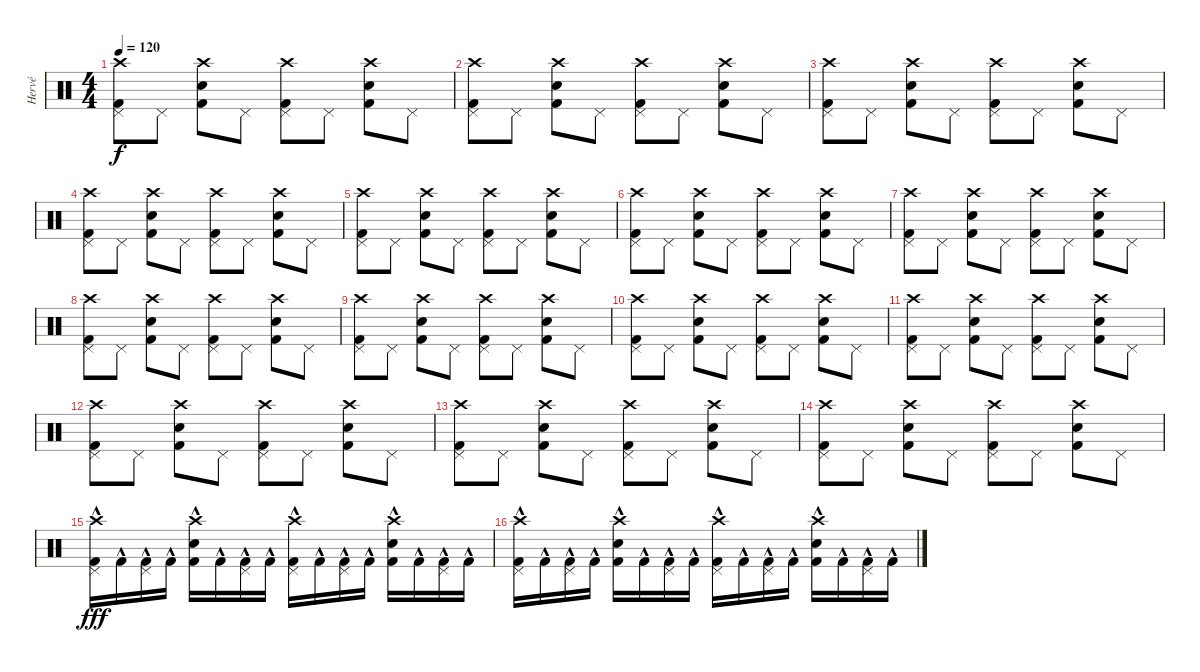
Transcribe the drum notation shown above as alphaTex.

\track ("Hervé" "Hervé") {instrument percussion}
\staff {score}
\articulation defaults
\ts (4 4)
\tempo 120
\clef neutral
\ks c
("Crash high (hit)" "Pedal Hi-Hat (hit)" "Kick (hit) 2").8{dy f} "Pedal Hi-Hat (hit)".8 ("Crash high (hit)" "Electric Snare (hit)" "Kick (hit) 2").8 "Pedal Hi-Hat (hit)".8 ("Crash high (hit)" "Pedal Hi-Hat (hit)" "Kick (hit) 2").8 "Pedal Hi-Hat (hit)".8 ("Crash high (hit)" "Electric Snare (hit)" "Kick (hit) 2").8 "Pedal Hi-Hat (hit)".8 |
("Crash high (hit)" "Pedal Hi-Hat (hit)" "Kick (hit) 2").8 "Pedal Hi-Hat (hit)".8 ("Crash high (hit)" "Electric Snare (hit)" "Kick (hit) 2").8 "Pedal Hi-Hat (hit)".8 ("Crash high (hit)" "Pedal Hi-Hat (hit)" "Kick (hit) 2").8 "Pedal Hi-Hat (hit)".8 ("Crash high (hit)" "Electric Snare (hit)" "Kick (hit) 2").8 "Pedal Hi-Hat (hit)".8 |
("Crash high (hit)" "Pedal Hi-Hat (hit)" "Kick (hit) 2").8 "Pedal Hi-Hat (hit)".8 ("Crash high (hit)" "Electric Snare (hit)" "Kick (hit) 2").8 "Pedal Hi-Hat (hit)".8 ("Crash high (hit)" "Pedal Hi-Hat (hit)" "Kick (hit) 2").8 "Pedal Hi-Hat (hit)".8 ("Crash high (hit)" "Electric Snare (hit)" "Kick (hit) 2").8 "Pedal Hi-Hat (hit)".8 |
("Crash high (hit)" "Pedal Hi-Hat (hit)" "Kick (hit) 2").8 "Pedal Hi-Hat (hit)".8 ("Crash high (hit)" "Electric Snare (hit)" "Kick (hit) 2").8 "Pedal Hi-Hat (hit)".8 ("Crash high (hit)" "Pedal Hi-Hat (hit)" "Kick (hit) 2").8 "Pedal Hi-Hat (hit)".8 ("Crash high (hit)" "Electric Snare (hit)" "Kick (hit) 2").8 "Pedal Hi-Hat (hit)".8 |
("Crash high (hit)" "Pedal Hi-Hat (hit)" "Kick (hit) 2").8 "Pedal Hi-Hat (hit)".8 ("Crash high (hit)" "Electric Snare (hit)" "Kick (hit) 2").8 "Pedal Hi-Hat (hit)".8 ("Crash high (hit)" "Pedal Hi-Hat (hit)" "Kick (hit) 2").8 "Pedal Hi-Hat (hit)".8 ("Crash high (hit)" "Electric Snare (hit)" "Kick (hit) 2").8 "Pedal Hi-Hat (hit)".8 |
("Crash high (hit)" "Pedal Hi-Hat (hit)" "Kick (hit) 2").8 "Pedal Hi-Hat (hit)".8 ("Crash high (hit)" "Electric Snare (hit)" "Kick (hit) 2").8 "Pedal Hi-Hat (hit)".8 ("Crash high (hit)" "Pedal Hi-Hat (hit)" "Kick (hit) 2").8 "Pedal Hi-Hat (hit)".8 ("Crash high (hit)" "Electric Snare (hit)" "Kick (hit) 2").8 "Pedal Hi-Hat (hit)".8 |
("Crash high (hit)" "Pedal Hi-Hat (hit)" "Kick (hit) 2").8 "Pedal Hi-Hat (hit)".8 ("Crash high (hit)" "Electric Snare (hit)" "Kick (hit) 2").8 "Pedal Hi-Hat (hit)".8 ("Crash high (hit)" "Pedal Hi-Hat (hit)" "Kick (hit) 2").8 "Pedal Hi-Hat (hit)".8 ("Crash high (hit)" "Electric Snare (hit)" "Kick (hit) 2").8 "Pedal Hi-Hat (hit)".8 |
("Crash high (hit)" "Pedal Hi-Hat (hit)" "Kick (hit) 2").8 "Pedal Hi-Hat (hit)".8 ("Crash high (hit)" "Electric Snare (hit)" "Kick (hit) 2").8 "Pedal Hi-Hat (hit)".8 ("Crash high (hit)" "Pedal Hi-Hat (hit)" "Kick (hit) 2").8 "Pedal Hi-Hat (hit)".8 ("Crash high (hit)" "Electric Snare (hit)" "Kick (hit) 2").8 "Pedal Hi-Hat (hit)".8 |
("Crash high (hit)" "Pedal Hi-Hat (hit)" "Kick (hit) 2").8 "Pedal Hi-Hat (hit)".8 ("Crash high (hit)" "Electric Snare (hit)" "Kick (hit) 2").8 "Pedal Hi-Hat (hit)".8 ("Crash high (hit)" "Pedal Hi-Hat (hit)" "Kick (hit) 2").8 "Pedal Hi-Hat (hit)".8 ("Crash high (hit)" "Electric Snare (hit)" "Kick (hit) 2").8 "Pedal Hi-Hat (hit)".8 |
("Crash high (hit)" "Pedal Hi-Hat (hit)" "Kick (hit) 2").8 "Pedal Hi-Hat (hit)".8 ("Crash high (hit)" "Electric Snare (hit)" "Kick (hit) 2").8 "Pedal Hi-Hat (hit)".8 ("Crash high (hit)" "Pedal Hi-Hat (hit)" "Kick (hit) 2").8 "Pedal Hi-Hat (hit)".8 ("Crash high (hit)" "Electric Snare (hit)" "Kick (hit) 2").8 "Pedal Hi-Hat (hit)".8 |
("Crash high (hit)" "Pedal Hi-Hat (hit)" "Kick (hit) 2").8 "Pedal Hi-Hat (hit)".8 ("Crash high (hit)" "Electric Snare (hit)" "Kick (hit) 2").8 "Pedal Hi-Hat (hit)".8 ("Crash high (hit)" "Pedal Hi-Hat (hit)" "Kick (hit) 2").8 "Pedal Hi-Hat (hit)".8 ("Crash high (hit)" "Electric Snare (hit)" "Kick (hit) 2").8 "Pedal Hi-Hat (hit)".8 |
("Crash high (hit)" "Pedal Hi-Hat (hit)" "Kick (hit) 2").8 "Pedal Hi-Hat (hit)".8 ("Crash high (hit)" "Electric Snare (hit)" "Kick (hit) 2").8 "Pedal Hi-Hat (hit)".8 ("Crash high (hit)" "Pedal Hi-Hat (hit)" "Kick (hit) 2").8 "Pedal Hi-Hat (hit)".8 ("Crash high (hit)" "Electric Snare (hit)" "Kick (hit) 2").8 "Pedal Hi-Hat (hit)".8 |
("Crash high (hit)" "Pedal Hi-Hat (hit)" "Kick (hit) 2").8 "Pedal Hi-Hat (hit)".8 ("Crash high (hit)" "Electric Snare (hit)" "Kick (hit) 2").8 "Pedal Hi-Hat (hit)".8 ("Crash high (hit)" "Pedal Hi-Hat (hit)" "Kick (hit) 2").8 "Pedal Hi-Hat (hit)".8 ("Crash high (hit)" "Electric Snare (hit)" "Kick (hit) 2").8 "Pedal Hi-Hat (hit)".8 |
("Crash high (hit)" "Pedal Hi-Hat (hit)" "Kick (hit) 2").8 "Pedal Hi-Hat (hit)".8 ("Crash high (hit)" "Electric Snare (hit)" "Kick (hit) 2").8 "Pedal Hi-Hat (hit)".8 ("Crash high (hit)" "Pedal Hi-Hat (hit)" "Kick (hit) 2").8 "Pedal Hi-Hat (hit)".8 ("Crash high (hit)" "Electric Snare (hit)" "Kick (hit) 2").8 "Pedal Hi-Hat (hit)".8 |
("Crash high (hit)" "Pedal Hi-Hat (hit)" "Kick (hit) 2"{hac}).16{dy fff} "Kick (hit) 2"{hac}.16 ("Pedal Hi-Hat (hit)" "Kick (hit) 2"{hac}).16 "Kick (hit) 2"{hac}.16 ("Crash high (hit)" "Electric Snare (hit)" "Kick (hit) 2"{hac}).16 "Kick (hit) 2"{hac}.16 ("Pedal Hi-Hat (hit)" "Kick (hit) 2"{hac}).16 "Kick (hit) 2"{hac}.16 ("Crash high (hit)" "Pedal Hi-Hat (hit)" "Kick (hit) 2"{hac}).16 "Kick (hit) 2"{hac}.16 ("Pedal Hi-Hat (hit)" "Kick (hit) 2"{hac}).16 "Kick (hit) 2"{hac}.16 ("Crash high (hit)" "Electric Snare (hit)" "Kick (hit) 2"{hac}).16 "Kick (hit) 2"{hac}.16 ("Pedal Hi-Hat (hit)" "Kick (hit) 2"{hac}).16 "Kick (hit) 2"{hac}.16 |
("Crash high (hit)" "Pedal Hi-Hat (hit)" "Kick (hit) 2"{hac}).16 "Kick (hit) 2"{hac}.16 ("Pedal Hi-Hat (hit)" "Kick (hit) 2"{hac}).16 "Kick (hit) 2"{hac}.16 ("Crash high (hit)" "Electric Snare (hit)" "Kick (hit) 2"{hac}).16 "Kick (hit) 2"{hac}.16 ("Pedal Hi-Hat (hit)" "Kick (hit) 2"{hac}).16 "Kick (hit) 2"{hac}.16 ("Crash high (hit)" "Pedal Hi-Hat (hit)" "Kick (hit) 2"{hac}).16 "Kick (hit) 2"{hac}.16 ("Pedal Hi-Hat (hit)" "Kick (hit) 2"{hac}).16 "Kick (hit) 2"{hac}.16 ("Crash high (hit)" "Electric Snare (hit)" "Kick (hit) 2"{hac}).16 "Kick (hit) 2"{hac}.16 ("Pedal Hi-Hat (hit)" "Kick (hit) 2"{hac}).16 "Kick (hit) 2"{hac}.16
